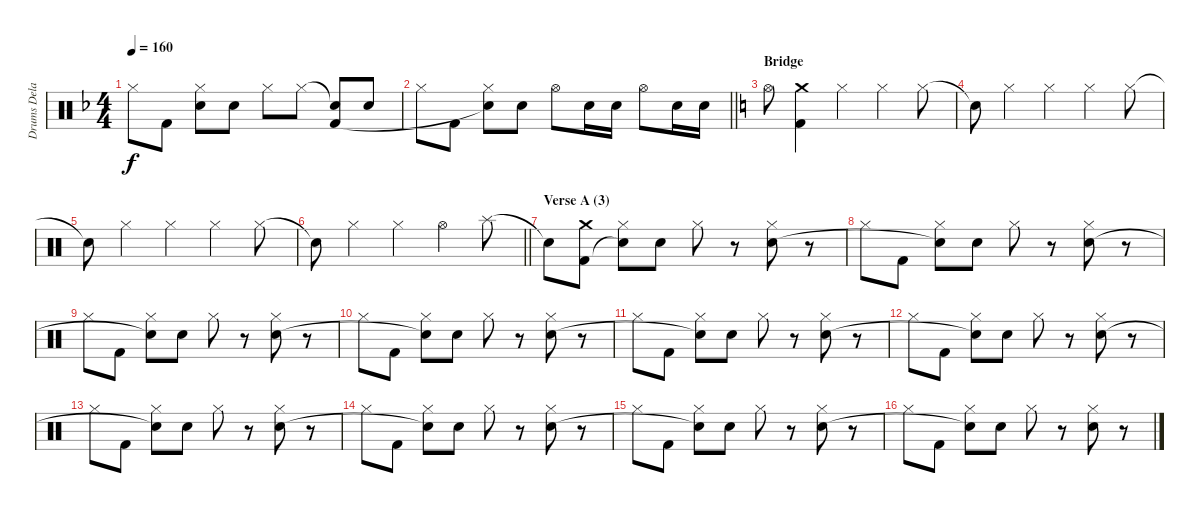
\track ("Drums Delay" "Drums Dela") {instrument percussion}
\staff {score}
\articulation defaults
\ts (4 4)
\tempo 160
\clef neutral
\ks f "Hi-Hat (closed)".8{dy f} "Kick (hit) 2".8
("Hi-Hat (closed)" "Snare (hit)"{t}).8 "Electric Snare (hit)".8 "Hi-Hat (closed)".8 "Hi-Hat (closed)".8 ("Snare (hit)"{t} "Kick (hit) 2").8 "Electric Snare (hit)".8 |
\barLineRight lightlight "Hi-Hat (closed)".8 "Kick (hit) 2".8
("Hi-Hat (closed)" "Snare (hit)"{t}).8 "Electric Snare (hit)".8 "Hi-Hat (open)".8 "Electric Snare (hit)".16 "Electric Snare (hit)".16 "Hi-Hat (open)".8 "Electric Snare (hit)".16 "Electric Snare (hit)".16 |
\section ("" "Bridge")
\ks c "Hi-Hat (open)".8
("Crash medium (hit)" "Kick (hit) 2").4 "Hi-Hat (closed)".4 "Hi-Hat (closed)".4 "Hi-Hat (closed)".8 |
"Snare (hit)"{t}.8 "Hi-Hat (closed)".4 "Hi-Hat (closed)".4 "Hi-Hat (closed)".4 "Hi-Hat (closed)".8 |
"Snare (hit)"{t}.8 "Hi-Hat (closed)".4 "Hi-Hat (closed)".4 "Hi-Hat (closed)".4 "Hi-Hat (closed)".8 |
\barLineRight lightlight "Snare (hit)"{t}.8 "Hi-Hat (closed)".4 "Hi-Hat (closed)".4 "Hi-Hat (open)".4 "Splash (hit)".8
|
\section ("" "Verse A (3)")
"Snare (hit)"{t}.8 ("Crash medium (hit)" "Kick (hit) 2").8 ("Hi-Hat (closed)" "Snare (hit)"{t}).8 "Electric Snare (hit)".8 "Hi-Hat (closed)".8 r.8 ("Hi-Hat (closed)" "Electric Snare (hit)").8 r.8 |
"Hi-Hat (closed)".8 "Kick (hit) 2".8 ("Hi-Hat (closed)" "Snare (hit)"{t}).8 "Electric Snare (hit)".8 "Hi-Hat (closed)".8 r.8 ("Hi-Hat (closed)" "Electric Snare (hit)").8 r.8 |
"Hi-Hat (closed)".8 "Kick (hit) 2".8 ("Hi-Hat (closed)" "Snare (hit)"{t}).8 "Electric Snare (hit)".8 "Hi-Hat (closed)".8 r.8 ("Hi-Hat (closed)" "Electric Snare (hit)").8 r.8 |
"Hi-Hat (closed)".8 "Kick (hit) 2".8 ("Hi-Hat (closed)" "Snare (hit)"{t}).8 "Electric Snare (hit)".8 "Hi-Hat (closed)".8 r.8 ("Hi-Hat (closed)" "Electric Snare (hit)").8 r.8 |
"Hi-Hat (closed)".8 "Kick (hit) 2".8 ("Hi-Hat (closed)" "Snare (hit)"{t}).8 "Electric Snare (hit)".8 "Hi-Hat (closed)".8 r.8 ("Hi-Hat (closed)" "Electric Snare (hit)").8 r.8 |
"Hi-Hat (closed)".8 "Kick (hit) 2".8 ("Hi-Hat (closed)" "Snare (hit)"{t}).8 "Electric Snare (hit)".8 "Hi-Hat (closed)".8 r.8 ("Hi-Hat (closed)" "Electric Snare (hit)").8 r.8 |
"Hi-Hat (closed)".8 "Kick (hit) 2".8 ("Hi-Hat (closed)" "Snare (hit)"{t}).8 "Electric Snare (hit)".8 "Hi-Hat (closed)".8 r.8 ("Hi-Hat (closed)" "Electric Snare (hit)").8 r.8 |
"Hi-Hat (closed)".8 "Kick (hit) 2".8 ("Hi-Hat (closed)" "Snare (hit)"{t}).8 "Electric Snare (hit)".8 "Hi-Hat (closed)".8 r.8 ("Hi-Hat (closed)" "Electric Snare (hit)").8 r.8 |
"Hi-Hat (closed)".8 "Kick (hit) 2".8 ("Hi-Hat (closed)" "Snare (hit)"{t}).8 "Electric Snare (hit)".8 "Hi-Hat (closed)".8 r.8 ("Hi-Hat (closed)" "Electric Snare (hit)").8 r.8 |
"Hi-Hat (closed)".8 "Kick (hit) 2".8 ("Hi-Hat (closed)" "Snare (hit)"{t}).8 "Electric Snare (hit)".8 "Hi-Hat (closed)".8 r.8 ("Hi-Hat (closed)" "Electric Snare (hit)").8 r.8
